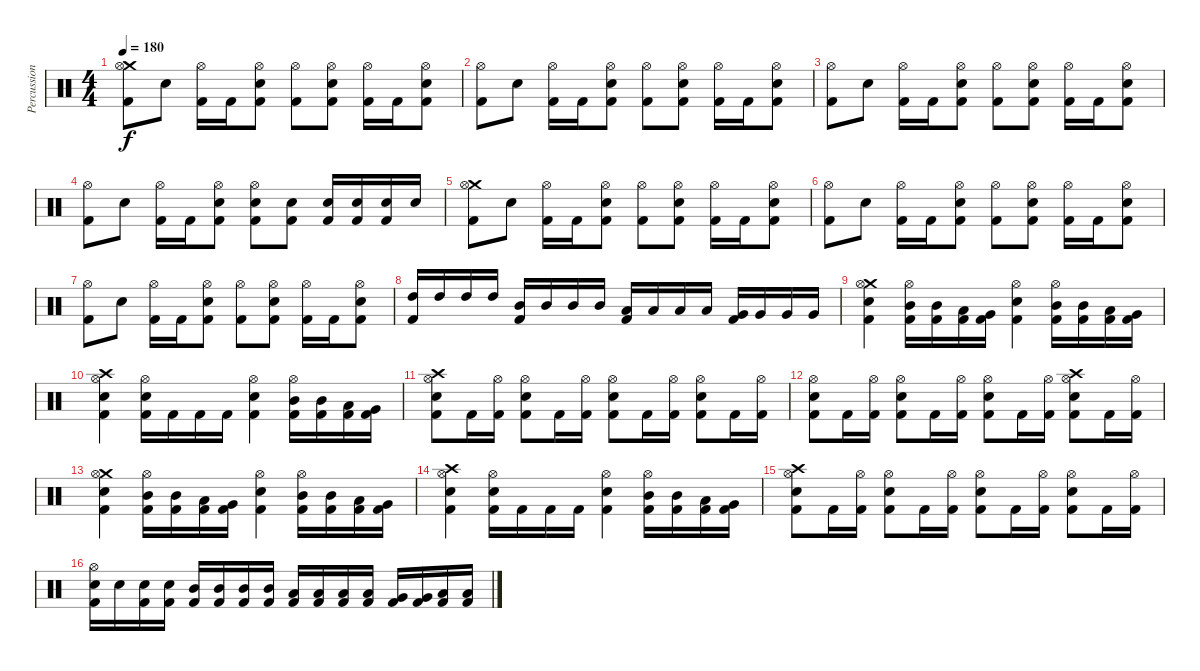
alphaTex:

\track ("Percussion" "Percussion") {instrument percussion}
\staff {score}
\articulation defaults
\ts (4 4)
\tempo 180
\clef neutral
\ks c
("Crash medium (hit)" "Hi-Hat (open)" "Kick (hit) 2").8{dy f} "Snare (hit) 2".8 ("Hi-Hat (open)" "Kick (hit) 2").16 "Kick (hit) 2".16 ("Hi-Hat (open)" "Snare (hit) 2" "Kick (hit) 2").8 ("Hi-Hat (open)" "Kick (hit) 2").8 ("Hi-Hat (open)" "Snare (hit) 2" "Kick (hit) 2").8 ("Hi-Hat (open)" "Kick (hit) 2").16 "Kick (hit) 2".16 ("Hi-Hat (open)" "Snare (hit) 2" "Kick (hit) 2").8 |
("Hi-Hat (open)" "Kick (hit) 2").8 "Snare (hit) 2".8 ("Hi-Hat (open)" "Kick (hit) 2").16 "Kick (hit) 2".16 ("Hi-Hat (open)" "Snare (hit) 2" "Kick (hit) 2").8 ("Hi-Hat (open)" "Kick (hit) 2").8 ("Hi-Hat (open)" "Snare (hit) 2" "Kick (hit) 2").8 ("Hi-Hat (open)" "Kick (hit) 2").16 "Kick (hit) 2".16 ("Hi-Hat (open)" "Snare (hit) 2" "Kick (hit) 2").8 |
("Hi-Hat (open)" "Kick (hit) 2").8 "Snare (hit) 2".8 ("Hi-Hat (open)" "Kick (hit) 2").16 "Kick (hit) 2".16 ("Hi-Hat (open)" "Snare (hit) 2" "Kick (hit) 2").8 ("Hi-Hat (open)" "Kick (hit) 2").8 ("Hi-Hat (open)" "Snare (hit) 2" "Kick (hit) 2").8 ("Hi-Hat (open)" "Kick (hit) 2").16 "Kick (hit) 2".16 ("Hi-Hat (open)" "Snare (hit) 2" "Kick (hit) 2").8 |
("Hi-Hat (open)" "Kick (hit) 2").8 "Snare (hit) 2".8 ("Hi-Hat (open)" "Kick (hit) 2").16 "Kick (hit) 2".16 ("Hi-Hat (open)" "Snare (hit) 2" "Kick (hit) 2").8 ("Hi-Hat (open)" "Snare (hit) 2" "Kick (hit) 2").8 ("Snare (hit) 2" "Kick (hit) 2").8 ("Snare (hit) 2" "Kick (hit) 2").16 ("Snare (hit) 2" "Kick (hit) 2").16 ("Snare (hit) 2" "Kick (hit) 2").16 "Snare (hit) 2".16 |
("Crash medium (hit)" "Hi-Hat (open)" "Kick (hit) 2").8 "Snare (hit) 2".8 ("Hi-Hat (open)" "Kick (hit) 2").16 "Kick (hit) 2".16 ("Hi-Hat (open)" "Snare (hit) 2" "Kick (hit) 2").8 ("Hi-Hat (open)" "Kick (hit) 2").8 ("Hi-Hat (open)" "Snare (hit) 2" "Kick (hit) 2").8 ("Hi-Hat (open)" "Kick (hit) 2").16 "Kick (hit) 2".16 ("Hi-Hat (open)" "Snare (hit) 2" "Kick (hit) 2").8 |
("Hi-Hat (open)" "Kick (hit) 2").8 "Snare (hit) 2".8 ("Hi-Hat (open)" "Kick (hit) 2").16 "Kick (hit) 2".16 ("Hi-Hat (open)" "Snare (hit) 2" "Kick (hit) 2").8 ("Hi-Hat (open)" "Kick (hit) 2").8 ("Hi-Hat (open)" "Snare (hit) 2" "Kick (hit) 2").8 ("Hi-Hat (open)" "Kick (hit) 2").16 "Kick (hit) 2".16 ("Hi-Hat (open)" "Snare (hit) 2" "Kick (hit) 2").8 |
("Hi-Hat (open)" "Kick (hit) 2").8 "Snare (hit) 2".8 ("Hi-Hat (open)" "Kick (hit) 2").16 "Kick (hit) 2".16 ("Hi-Hat (open)" "Snare (hit) 2" "Kick (hit) 2").8 ("Hi-Hat (open)" "Kick (hit) 2").8 ("Hi-Hat (open)" "Snare (hit) 2" "Kick (hit) 2").8 ("Hi-Hat (open)" "Kick (hit) 2").16 "Kick (hit) 2".16 ("Hi-Hat (open)" "Snare (hit) 2" "Kick (hit) 2").8 |
("High Tom (hit)" "Kick (hit) 2").16 "High Tom (hit)".16 "High Tom (hit)".16 "High Tom (hit)".16 ("Mid Tom (hit)" "Kick (hit) 2").16 "Mid Tom (hit)".16 "Mid Tom (hit)".16 "Mid Tom (hit)".16 ("Low Tom (hit)" "Kick (hit) 2").16 "Low Tom (hit)".16 "Low Tom (hit)".16 "Low Tom (hit)".16 ("Very Low Tom (hit)" "Kick (hit) 2").16 "Very Low Tom (hit)".16 "Very Low Tom (hit)".16 "Very Low Tom (hit)".16 |
("Crash medium (hit)" "Hi-Hat (open)" "Snare (hit) 2" "Kick (hit) 2").4 ("Hi-Hat (open)" "Mid Tom (hit)" "Kick (hit) 2").16 ("Mid Tom (hit)" "Kick (hit) 2").16 ("Low Tom (hit)" "Kick (hit) 2").16 ("Very Low Tom (hit)" "Kick (hit) 2").16 ("Hi-Hat (open)" "Snare (hit) 2" "Kick (hit) 2").4 ("Hi-Hat (open)" "Mid Tom (hit)" "Kick (hit) 2").16 ("Mid Tom (hit)" "Kick (hit) 2").16 ("Low Tom (hit)" "Kick (hit) 2").16 ("Very Low Tom (hit)" "Kick (hit) 2").16 |
("Crash high (hit)" "Hi-Hat (open)" "Snare (hit) 2" "Kick (hit) 2").4 ("Hi-Hat (open)" "Snare (hit) 2" "Kick (hit) 2").16 "Kick (hit) 2".16 "Kick (hit) 2".16 "Kick (hit) 2".16 ("Hi-Hat (open)" "Snare (hit) 2" "Kick (hit) 2").4 ("Hi-Hat (open)" "Mid Tom (hit)" "Kick (hit) 2").16 ("Mid Tom (hit)" "Kick (hit) 2").16 ("Low Tom (hit)" "Kick (hit) 2").16 ("Very Low Tom (hit)" "Kick (hit) 2").16 |
("Crash high (hit)" "Hi-Hat (open)" "Snare (hit) 2" "Kick (hit) 2").8 "Kick (hit) 2".16 ("Hi-Hat (open)" "Kick (hit) 2").16 ("Hi-Hat (open)" "Snare (hit) 2" "Kick (hit) 2").8 "Kick (hit) 2".16 ("Hi-Hat (open)" "Kick (hit) 2").16 ("Hi-Hat (open)" "Snare (hit) 2" "Kick (hit) 2").8 "Kick (hit) 2".16 ("Hi-Hat (open)" "Kick (hit) 2").16 ("Hi-Hat (open)" "Snare (hit) 2" "Kick (hit) 2").8 "Kick (hit) 2".16 ("Hi-Hat (open)" "Kick (hit) 2").16 |
("Hi-Hat (open)" "Snare (hit) 2" "Kick (hit) 2").8 "Kick (hit) 2".16 ("Hi-Hat (open)" "Kick (hit) 2").16 ("Hi-Hat (open)" "Snare (hit) 2" "Kick (hit) 2").8 "Kick (hit) 2".16 ("Hi-Hat (open)" "Kick (hit) 2").16 ("Hi-Hat (open)" "Snare (hit) 2" "Kick (hit) 2").8 "Kick (hit) 2".16 ("Hi-Hat (open)" "Kick (hit) 2").16 ("Crash high (hit)" "Hi-Hat (open)" "Snare (hit) 2" "Kick (hit) 2").8 "Kick (hit) 2".16 ("Hi-Hat (open)" "Kick (hit) 2").16 |
("Crash medium (hit)" "Hi-Hat (open)" "Snare (hit) 2" "Kick (hit) 2").4 ("Hi-Hat (open)" "Mid Tom (hit)" "Kick (hit) 2").16 ("Mid Tom (hit)" "Kick (hit) 2").16 ("Low Tom (hit)" "Kick (hit) 2").16 ("Very Low Tom (hit)" "Kick (hit) 2").16 ("Hi-Hat (open)" "Snare (hit) 2" "Kick (hit) 2").4 ("Hi-Hat (open)" "Mid Tom (hit)" "Kick (hit) 2").16 ("Mid Tom (hit)" "Kick (hit) 2").16 ("Low Tom (hit)" "Kick (hit) 2").16 ("Very Low Tom (hit)" "Kick (hit) 2").16 |
("Crash high (hit)" "Hi-Hat (open)" "Snare (hit) 2" "Kick (hit) 2").4 ("Hi-Hat (open)" "Snare (hit) 2" "Kick (hit) 2").16 "Kick (hit) 2".16 "Kick (hit) 2".16 "Kick (hit) 2".16 ("Hi-Hat (open)" "Snare (hit) 2" "Kick (hit) 2").4 ("Hi-Hat (open)" "Mid Tom (hit)" "Kick (hit) 2").16 ("Mid Tom (hit)" "Kick (hit) 2").16 ("Low Tom (hit)" "Kick (hit) 2").16 ("Very Low Tom (hit)" "Kick (hit) 2").16 |
("Crash high (hit)" "Hi-Hat (open)" "Snare (hit) 2" "Kick (hit) 2").8 "Kick (hit) 2".16 ("Hi-Hat (open)" "Kick (hit) 2").16 ("Hi-Hat (open)" "Snare (hit) 2" "Kick (hit) 2").8 "Kick (hit) 2".16 ("Hi-Hat (open)" "Kick (hit) 2").16 ("Hi-Hat (open)" "Snare (hit) 2" "Kick (hit) 2").8 "Kick (hit) 2".16 ("Hi-Hat (open)" "Kick (hit) 2").16 ("Hi-Hat (open)" "Snare (hit) 2" "Kick (hit) 2").8 "Kick (hit) 2".16 ("Hi-Hat (open)" "Kick (hit) 2").16 |
("Hi-Hat (open)" "Snare (hit) 2" "Kick (hit) 2").16 "Snare (hit) 2".16 ("Snare (hit) 2" "Kick (hit) 2").16 ("Snare (hit) 2" "Kick (hit) 2").16 ("Mid Tom (hit)" "Kick (hit) 2").16 ("Mid Tom (hit)" "Kick (hit) 2").16 ("Mid Tom (hit)" "Kick (hit) 2").16 ("Mid Tom (hit)" "Kick (hit) 2").16 ("Low Tom (hit)" "Kick (hit) 2").16 ("Low Tom (hit)" "Kick (hit) 2").16 ("Low Tom (hit)" "Kick (hit) 2").16 ("Low Tom (hit)" "Kick (hit) 2").16 ("Very Low Tom (hit)" "Kick (hit) 2").16 ("Very Low Tom (hit)" "Kick (hit) 2").16 ("Low Floor Tom (hit)" "Kick (hit) 2").16 ("Low Floor Tom (hit)" "Kick (hit) 2").16
